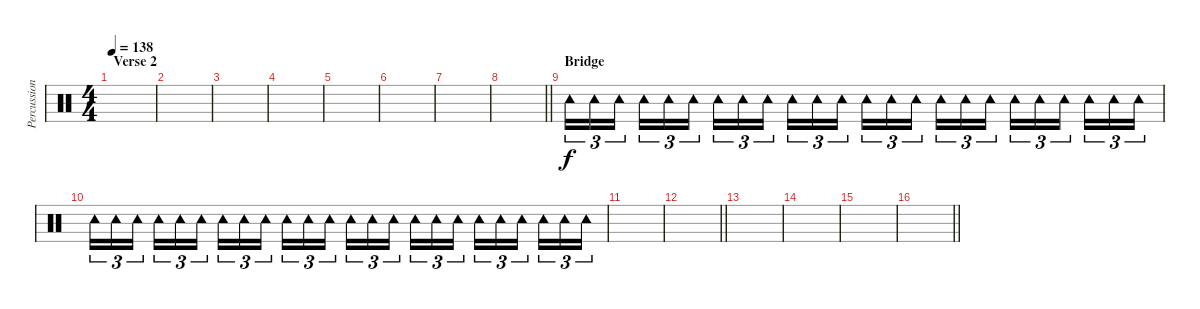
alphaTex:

\track ("Percussions" "Percussion") {instrument percussion}
\staff
\articulation defaults
\ts (4 4)
\section ("" "Verse 2")
\tempo 138
\clef neutral
\ks c
|
|
|
|
|
|
|
\barLineRight lightlight
|
\section ("" "Bridge")
"Tambourine (hit)".16{tu (3 2) volume 0} "Tambourine (hit)".16{tu (3 2)} "Tambourine (hit)".16{tu (3 2) beam splitsecondary} "Tambourine (hit)".16{tu (3 2)} "Tambourine (hit)".16{tu (3 2)} "Tambourine (hit)".16{tu (3 2)} "Tambourine (hit)".16{tu (3 2)} "Tambourine (hit)".16{tu (3 2)} "Tambourine (hit)".16{tu (3 2) beam splitsecondary} "Tambourine (hit)".16{tu (3 2)} "Tambourine (hit)".16{tu (3 2)} "Tambourine (hit)".16{tu (3 2)} "Tambourine (hit)".16{tu (3 2)} "Tambourine (hit)".16{tu (3 2)} "Tambourine (hit)".16{tu (3 2) beam splitsecondary} "Tambourine (hit)".16{tu (3 2)} "Tambourine (hit)".16{tu (3 2)} "Tambourine (hit)".16{tu (3 2)} "Tambourine (hit)".16{tu (3 2)} "Tambourine (hit)".16{tu (3 2)} "Tambourine (hit)".16{tu (3 2) beam splitsecondary} "Tambourine (hit)".16{tu (3 2)} "Tambourine (hit)".16{tu (3 2)} "Tambourine (hit)".16{tu (3 2)} |
"Tambourine (hit)".16{tu (3 2)} "Tambourine (hit)".16{tu (3 2)} "Tambourine (hit)".16{tu (3 2) beam splitsecondary} "Tambourine (hit)".16{tu (3 2)} "Tambourine (hit)".16{tu (3 2)} "Tambourine (hit)".16{tu (3 2)} "Tambourine (hit)".16{tu (3 2)} "Tambourine (hit)".16{tu (3 2)} "Tambourine (hit)".16{tu (3 2) beam splitsecondary} "Tambourine (hit)".16{tu (3 2)} "Tambourine (hit)".16{tu (3 2)} "Tambourine (hit)".16{tu (3 2)} "Tambourine (hit)".16{tu (3 2)} "Tambourine (hit)".16{tu (3 2)} "Tambourine (hit)".16{tu (3 2) beam splitsecondary} "Tambourine (hit)".16{tu (3 2)} "Tambourine (hit)".16{tu (3 2)} "Tambourine (hit)".16{tu (3 2)} "Tambourine (hit)".16{tu (3 2)} "Tambourine (hit)".16{tu (3 2)} "Tambourine (hit)".16{tu (3 2) beam splitsecondary} "Tambourine (hit)".16{tu (3 2)} "Tambourine (hit)".16{tu (3 2)} "Tambourine (hit)".16{tu (3 2)} |
|
\barLineRight lightlight
|
|
|
|
\barLineRight lightlight
